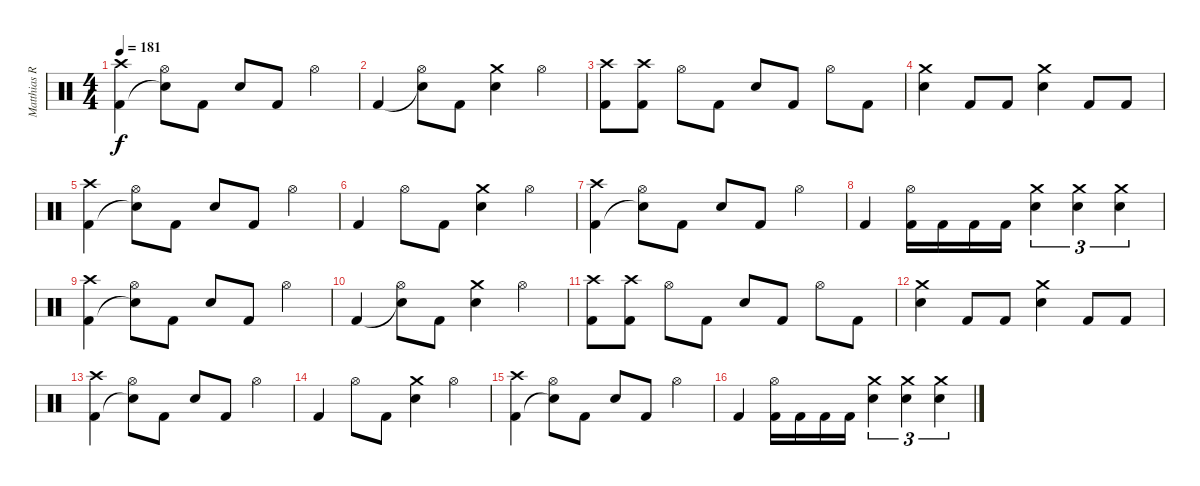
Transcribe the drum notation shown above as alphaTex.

\track ("Matthias R." "Matthias R") {instrument percussion}
\staff {score}
\articulation defaults
\ts (4 4)
\tempo 181
\clef neutral
\ks c
("Kick (hit) 2" "Crash high (hit)").4{dy f} ("Snare (hit)"{t} "Hi-Hat (open)").8 "Kick (hit) 2".8 "Snare (hit) 2".8 "Kick (hit) 2".8 "Hi-Hat (open)".4 |
"Kick (hit) 2".4 ("Snare (hit)"{t} "Hi-Hat (open)").8 "Kick (hit) 2".8 ("Snare (hit) 2" "Crash medium (hit)").4 "Hi-Hat (open)".4 |
("Kick (hit) 2" "Crash high (hit)").8 ("Kick (hit) 2" "Crash high (hit)").8 "Hi-Hat (open)".8 "Kick (hit) 2".8 "Snare (hit) 2".8 "Kick (hit) 2".8 "Hi-Hat (open)".8 "Kick (hit) 2".8 |
("Snare (hit) 2" "Crash medium (hit)").4 "Kick (hit) 2".8 "Kick (hit) 2".8 ("Snare (hit) 2" "Crash medium (hit)").4 "Kick (hit) 2".8 "Kick (hit) 2".8 |
("Kick (hit) 2" "Crash high (hit)").4 ("Snare (hit)"{t} "Hi-Hat (open)").8 "Kick (hit) 2".8 "Snare (hit) 2".8 "Kick (hit) 2".8 "Hi-Hat (open)".4 |
"Kick (hit) 2".4 "Hi-Hat (open)".8 "Kick (hit) 2".8 ("Snare (hit) 2" "Crash medium (hit)").4 "Hi-Hat (open)".4 |
("Kick (hit) 2" "Crash high (hit)").4 ("Snare (hit)"{t} "Hi-Hat (open)").8 "Kick (hit) 2".8 "Snare (hit) 2".8 "Kick (hit) 2".8 "Hi-Hat (open)".4 |
"Kick (hit) 2".4 ("Kick (hit) 2" "Hi-Hat (open)").16 "Kick (hit) 2".16 "Kick (hit) 2".16 "Kick (hit) 2".16 ("Snare (hit) 2" "Crash medium (hit)").4{tu (3 2)} ("Snare (hit) 2" "Crash medium (hit)").4{tu (3 2)} ("Snare (hit) 2" "Crash medium (hit)").4{tu (3 2)} |
("Kick (hit) 2" "Crash high (hit)").4 ("Snare (hit)"{t} "Hi-Hat (open)").8 "Kick (hit) 2".8 "Snare (hit) 2".8 "Kick (hit) 2".8 "Hi-Hat (open)".4 |
"Kick (hit) 2".4 ("Snare (hit)"{t} "Hi-Hat (open)").8 "Kick (hit) 2".8 ("Snare (hit) 2" "Crash medium (hit)").4 "Hi-Hat (open)".4 |
("Kick (hit) 2" "Crash high (hit)").8 ("Kick (hit) 2" "Crash high (hit)").8 "Hi-Hat (open)".8 "Kick (hit) 2".8 "Snare (hit) 2".8 "Kick (hit) 2".8 "Hi-Hat (open)".8 "Kick (hit) 2".8 |
("Snare (hit) 2" "Crash medium (hit)").4 "Kick (hit) 2".8 "Kick (hit) 2".8 ("Snare (hit) 2" "Crash medium (hit)").4 "Kick (hit) 2".8 "Kick (hit) 2".8 |
("Kick (hit) 2" "Crash high (hit)").4 ("Snare (hit)"{t} "Hi-Hat (open)").8 "Kick (hit) 2".8 "Snare (hit) 2".8 "Kick (hit) 2".8 "Hi-Hat (open)".4 |
"Kick (hit) 2".4 "Hi-Hat (open)".8 "Kick (hit) 2".8 ("Snare (hit) 2" "Crash medium (hit)").4 "Hi-Hat (open)".4 |
("Kick (hit) 2" "Crash high (hit)").4 ("Snare (hit)"{t} "Hi-Hat (open)").8 "Kick (hit) 2".8 "Snare (hit) 2".8 "Kick (hit) 2".8 "Hi-Hat (open)".4 |
"Kick (hit) 2".4 ("Kick (hit) 2" "Hi-Hat (open)").16 "Kick (hit) 2".16 "Kick (hit) 2".16 "Kick (hit) 2".16 ("Snare (hit) 2" "Crash medium (hit)").4{tu (3 2)} ("Snare (hit) 2" "Crash medium (hit)").4{tu (3 2)} ("Snare (hit) 2" "Crash medium (hit)").4{tu (3 2)}
